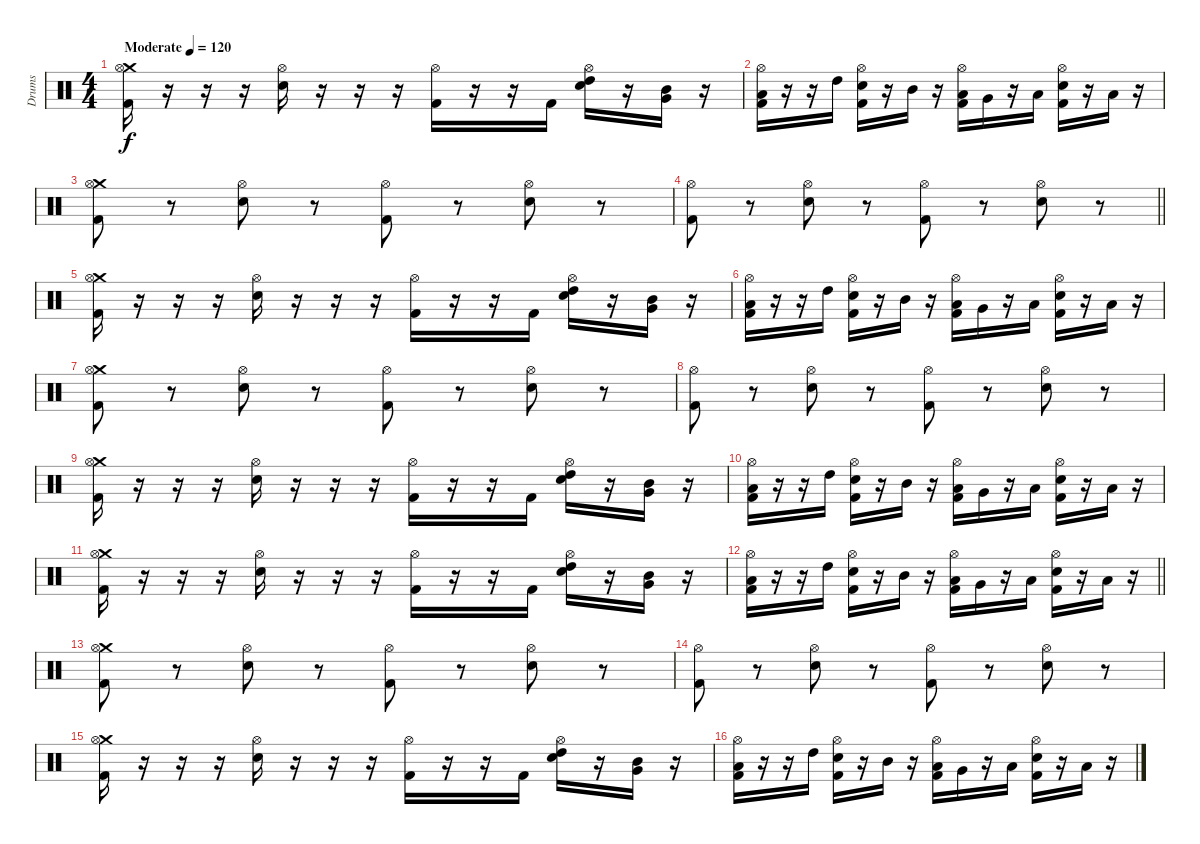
\track ("Drums" "Drums") {instrument percussion}
\staff {score}
\articulation defaults
\ts (4 4)
\section ("" "")
\tempo (120 "Moderate")
\clef neutral
\ks c
("Crash medium (hit)" "Hi-Hat (open)" "Kick (hit) 2").16{dy f} r.16 r.16 r.16 ("Hi-Hat (open)" "Electric Snare (hit)").16 r.16 r.16 r.16 ("Hi-Hat (open)" "Kick (hit) 2").16 r.16 r.16 "Kick (hit) 2".16 ("Hi-Hat (open)" "Electric Snare (hit)" "High Tom (hit)").16 r.16 ("Very Low Tom (hit)" "Mid Tom (hit)").16 r.16 |
("Hi-Hat (open)" "Low Tom (hit)" "Kick (hit) 2").16 r.16 r.16 "High Tom (hit)".16 ("Hi-Hat (open)" "Electric Snare (hit)" "Kick (hit) 2").16 r.16 "Mid Tom (hit)".16 r.16 ("Hi-Hat (open)" "Low Tom (hit)" "Kick (hit) 2").16 "Very Low Tom (hit)".16 r.16 "Low Tom (hit)".16 ("Hi-Hat (open)" "Electric Snare (hit)" "Kick (hit) 2").16 r.16 "Low Floor Tom (hit)".16 r.16 |
("Crash medium (hit)" "Hi-Hat (open)" "Kick (hit) 2").8 r.8 ("Hi-Hat (open)" "Electric Snare (hit)").8 r.8 ("Hi-Hat (open)" "Kick (hit) 2").8 r.8 ("Hi-Hat (open)" "Electric Snare (hit)").8 r.8 |
\barLineRight lightlight
("Hi-Hat (open)" "Kick (hit) 2").8 r.8 ("Hi-Hat (open)" "Electric Snare (hit)").8 r.8 ("Hi-Hat (open)" "Kick (hit) 2").8 r.8 ("Hi-Hat (open)" "Electric Snare (hit)").8 r.8 |
\section ("" "")
("Crash medium (hit)" "Hi-Hat (open)" "Kick (hit) 2").16 r.16 r.16 r.16 ("Hi-Hat (open)" "Electric Snare (hit)").16 r.16 r.16 r.16 ("Hi-Hat (open)" "Kick (hit) 2").16 r.16 r.16 "Kick (hit) 2".16 ("Hi-Hat (open)" "Electric Snare (hit)" "High Tom (hit)").16 r.16 ("Very Low Tom (hit)" "Mid Tom (hit)").16 r.16 |
("Hi-Hat (open)" "Low Tom (hit)" "Kick (hit) 2").16 r.16 r.16 "High Tom (hit)".16 ("Hi-Hat (open)" "Electric Snare (hit)" "Kick (hit) 2").16 r.16 "Mid Tom (hit)".16 r.16 ("Hi-Hat (open)" "Low Tom (hit)" "Kick (hit) 2").16 "Very Low Tom (hit)".16 r.16 "Low Tom (hit)".16 ("Hi-Hat (open)" "Electric Snare (hit)" "Kick (hit) 2").16 r.16 "Low Floor Tom (hit)".16 r.16 |
("Crash medium (hit)" "Hi-Hat (open)" "Kick (hit) 2").8 r.8 ("Hi-Hat (open)" "Electric Snare (hit)").8 r.8 ("Hi-Hat (open)" "Kick (hit) 2").8 r.8 ("Hi-Hat (open)" "Electric Snare (hit)").8 r.8 |
("Hi-Hat (open)" "Kick (hit) 2").8 r.8 ("Hi-Hat (open)" "Electric Snare (hit)").8 r.8 ("Hi-Hat (open)" "Kick (hit) 2").8 r.8 ("Hi-Hat (open)" "Electric Snare (hit)").8 r.8 |
("Crash medium (hit)" "Hi-Hat (open)" "Kick (hit) 2").16 r.16 r.16 r.16 ("Hi-Hat (open)" "Electric Snare (hit)").16 r.16 r.16 r.16 ("Hi-Hat (open)" "Kick (hit) 2").16 r.16 r.16 "Kick (hit) 2".16 ("Hi-Hat (open)" "Electric Snare (hit)" "High Tom (hit)").16 r.16 ("Very Low Tom (hit)" "Mid Tom (hit)").16 r.16 |
("Hi-Hat (open)" "Low Tom (hit)" "Kick (hit) 2").16 r.16 r.16 "High Tom (hit)".16 ("Hi-Hat (open)" "Electric Snare (hit)" "Kick (hit) 2").16 r.16 "Mid Tom (hit)".16 r.16 ("Hi-Hat (open)" "Low Tom (hit)" "Kick (hit) 2").16 "Very Low Tom (hit)".16 r.16 "Low Tom (hit)".16 ("Hi-Hat (open)" "Electric Snare (hit)" "Kick (hit) 2").16 r.16 "Low Floor Tom (hit)".16 r.16 |
("Crash medium (hit)" "Hi-Hat (open)" "Kick (hit) 2").16 r.16 r.16 r.16 ("Hi-Hat (open)" "Electric Snare (hit)").16 r.16 r.16 r.16 ("Hi-Hat (open)" "Kick (hit) 2").16 r.16 r.16 "Kick (hit) 2".16 ("Hi-Hat (open)" "Electric Snare (hit)" "High Tom (hit)").16 r.16 ("Very Low Tom (hit)" "Mid Tom (hit)").16 r.16 |
\barLineRight lightlight
("Hi-Hat (open)" "Low Tom (hit)" "Kick (hit) 2").16 r.16 r.16 "High Tom (hit)".16 ("Hi-Hat (open)" "Electric Snare (hit)" "Kick (hit) 2").16 r.16 "Mid Tom (hit)".16 r.16 ("Hi-Hat (open)" "Low Tom (hit)" "Kick (hit) 2").16 "Very Low Tom (hit)".16 r.16 "Low Tom (hit)".16 ("Hi-Hat (open)" "Electric Snare (hit)" "Kick (hit) 2").16 r.16 "Low Floor Tom (hit)".16 r.16 |
\section ("" "")
("Crash medium (hit)" "Hi-Hat (open)" "Kick (hit) 2").8 r.8 ("Hi-Hat (open)" "Electric Snare (hit)").8 r.8 ("Hi-Hat (open)" "Kick (hit) 2").8 r.8 ("Hi-Hat (open)" "Electric Snare (hit)").8 r.8 |
("Hi-Hat (open)" "Kick (hit) 2").8 r.8 ("Hi-Hat (open)" "Electric Snare (hit)").8 r.8 ("Hi-Hat (open)" "Kick (hit) 2").8 r.8 ("Hi-Hat (open)" "Electric Snare (hit)").8 r.8 |
("Crash medium (hit)" "Hi-Hat (open)" "Kick (hit) 2").16 r.16 r.16 r.16 ("Hi-Hat (open)" "Electric Snare (hit)").16 r.16 r.16 r.16 ("Hi-Hat (open)" "Kick (hit) 2").16 r.16 r.16 "Kick (hit) 2".16 ("Hi-Hat (open)" "Electric Snare (hit)" "High Tom (hit)").16 r.16 ("Very Low Tom (hit)" "Mid Tom (hit)").16 r.16 |
("Hi-Hat (open)" "Low Tom (hit)" "Kick (hit) 2").16 r.16 r.16 "High Tom (hit)".16 ("Hi-Hat (open)" "Electric Snare (hit)" "Kick (hit) 2").16 r.16 "Mid Tom (hit)".16 r.16 ("Hi-Hat (open)" "Low Tom (hit)" "Kick (hit) 2").16 "Very Low Tom (hit)".16 r.16 "Low Tom (hit)".16 ("Hi-Hat (open)" "Electric Snare (hit)" "Kick (hit) 2").16 r.16 "Low Floor Tom (hit)".16 r.16
